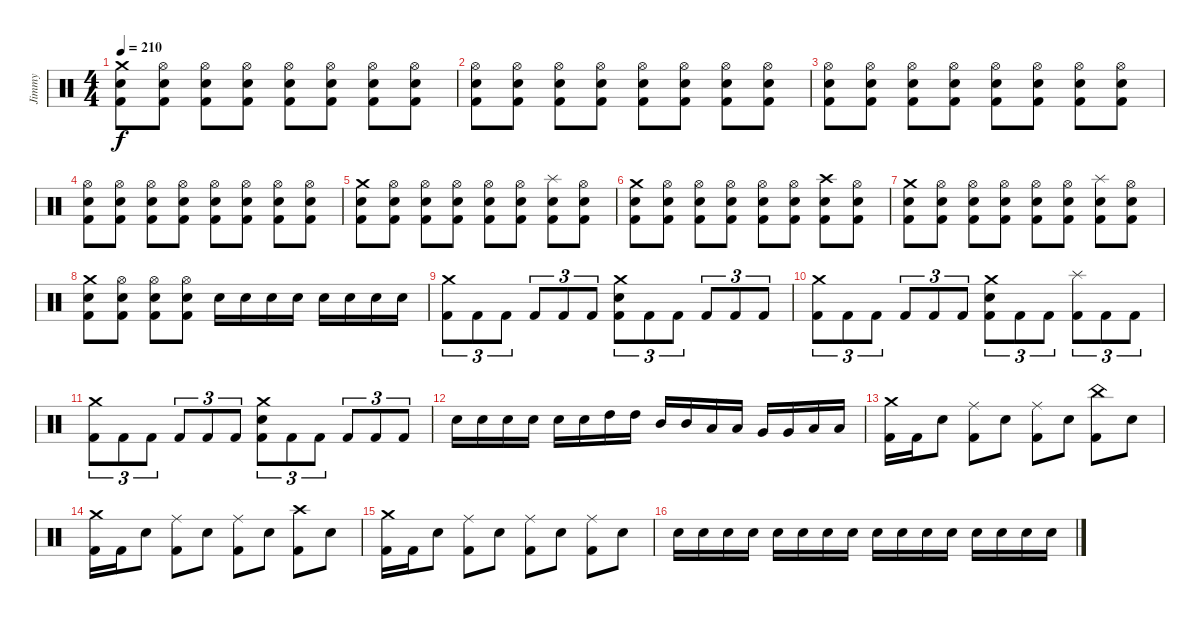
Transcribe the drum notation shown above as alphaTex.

\track ("Jimmy" "Jimmy") {instrument percussion}
\staff {score}
\articulation defaults
\ts (4 4)
\tempo 210
\clef neutral
\ks c
("Crash medium (hit)" "Electric Snare (hit)" "Kick (hit) 2").8{dy f} ("Hi-Hat (open)" "Electric Snare (hit)" "Kick (hit) 2").8 ("Hi-Hat (open)" "Electric Snare (hit)" "Kick (hit) 2").8 ("Hi-Hat (open)" "Electric Snare (hit)" "Kick (hit) 2").8 ("Hi-Hat (open)" "Electric Snare (hit)" "Kick (hit) 2").8 ("Hi-Hat (open)" "Electric Snare (hit)" "Kick (hit) 2").8 ("Hi-Hat (open)" "Electric Snare (hit)" "Kick (hit) 2").8 ("Hi-Hat (open)" "Electric Snare (hit)" "Kick (hit) 2").8 |
("Hi-Hat (open)" "Electric Snare (hit)" "Kick (hit) 2").8 ("Hi-Hat (open)" "Electric Snare (hit)" "Kick (hit) 2").8 ("Hi-Hat (open)" "Electric Snare (hit)" "Kick (hit) 2").8 ("Hi-Hat (open)" "Electric Snare (hit)" "Kick (hit) 2").8 ("Hi-Hat (open)" "Electric Snare (hit)" "Kick (hit) 2").8 ("Hi-Hat (open)" "Electric Snare (hit)" "Kick (hit) 2").8 ("Hi-Hat (open)" "Electric Snare (hit)" "Kick (hit) 2").8 ("Hi-Hat (open)" "Electric Snare (hit)" "Kick (hit) 2").8 |
("Hi-Hat (open)" "Electric Snare (hit)" "Kick (hit) 2").8 ("Hi-Hat (open)" "Electric Snare (hit)" "Kick (hit) 2").8 ("Hi-Hat (open)" "Electric Snare (hit)" "Kick (hit) 2").8 ("Hi-Hat (open)" "Electric Snare (hit)" "Kick (hit) 2").8 ("Hi-Hat (open)" "Electric Snare (hit)" "Kick (hit) 2").8 ("Hi-Hat (open)" "Electric Snare (hit)" "Kick (hit) 2").8 ("Hi-Hat (open)" "Electric Snare (hit)" "Kick (hit) 2").8 ("Hi-Hat (open)" "Electric Snare (hit)" "Kick (hit) 2").8 |
("Hi-Hat (open)" "Electric Snare (hit)" "Kick (hit) 2").8 ("Hi-Hat (open)" "Electric Snare (hit)" "Kick (hit) 2").8 ("Hi-Hat (open)" "Electric Snare (hit)" "Kick (hit) 2").8 ("Hi-Hat (open)" "Electric Snare (hit)" "Kick (hit) 2").8 ("Hi-Hat (open)" "Electric Snare (hit)" "Kick (hit) 2").8 ("Hi-Hat (open)" "Electric Snare (hit)" "Kick (hit) 2").8 ("Hi-Hat (open)" "Electric Snare (hit)" "Kick (hit) 2").8 ("Hi-Hat (open)" "Electric Snare (hit)" "Kick (hit) 2").8 |
("Crash medium (hit)" "Electric Snare (hit)" "Kick (hit) 2").8 ("Hi-Hat (open)" "Electric Snare (hit)" "Kick (hit) 2").8 ("Hi-Hat (open)" "Electric Snare (hit)" "Kick (hit) 2").8 ("Hi-Hat (open)" "Electric Snare (hit)" "Kick (hit) 2").8 ("Hi-Hat (open)" "Electric Snare (hit)" "Kick (hit) 2").8 ("Hi-Hat (open)" "Electric Snare (hit)" "Kick (hit) 2").8 ("Splash (hit)" "Electric Snare (hit)" "Kick (hit) 2").8 ("Hi-Hat (open)" "Electric Snare (hit)" "Kick (hit) 2").8 |
("Crash medium (hit)" "Electric Snare (hit)" "Kick (hit) 2").8 ("Hi-Hat (open)" "Electric Snare (hit)" "Kick (hit) 2").8 ("Hi-Hat (open)" "Electric Snare (hit)" "Kick (hit) 2").8 ("Hi-Hat (open)" "Electric Snare (hit)" "Kick (hit) 2").8 ("Hi-Hat (open)" "Electric Snare (hit)" "Kick (hit) 2").8 ("Hi-Hat (open)" "Electric Snare (hit)" "Kick (hit) 2").8 ("Crash high (hit)" "Electric Snare (hit)" "Kick (hit) 2").8 ("Hi-Hat (open)" "Electric Snare (hit)" "Kick (hit) 2").8 |
("Crash medium (hit)" "Electric Snare (hit)" "Kick (hit) 2").8 ("Hi-Hat (open)" "Electric Snare (hit)" "Kick (hit) 2").8 ("Hi-Hat (open)" "Electric Snare (hit)" "Kick (hit) 2").8 ("Hi-Hat (open)" "Electric Snare (hit)" "Kick (hit) 2").8 ("Hi-Hat (open)" "Electric Snare (hit)" "Kick (hit) 2").8 ("Hi-Hat (open)" "Electric Snare (hit)" "Kick (hit) 2").8 ("Splash (hit)" "Electric Snare (hit)" "Kick (hit) 2").8 ("Hi-Hat (open)" "Electric Snare (hit)" "Kick (hit) 2").8 |
("Crash medium (hit)" "Electric Snare (hit)" "Kick (hit) 2").8 ("Hi-Hat (open)" "Electric Snare (hit)" "Kick (hit) 2").8 ("Hi-Hat (open)" "Electric Snare (hit)" "Kick (hit) 2").8 ("Hi-Hat (open)" "Electric Snare (hit)" "Kick (hit) 2").8 "Electric Snare (hit)".16 "Electric Snare (hit)".16 "Electric Snare (hit)".16 "Electric Snare (hit)".16 "Electric Snare (hit)".16 "Electric Snare (hit)".16 "Electric Snare (hit)".16 "Electric Snare (hit)".16 |
("Crash medium (hit)" "Kick (hit) 2").8{tu (3 2)} "Kick (hit) 2".8{tu (3 2)} "Kick (hit) 2".8{tu (3 2)} "Kick (hit) 2".8{tu (3 2)} "Kick (hit) 2".8{tu (3 2)} "Kick (hit) 2".8{tu (3 2)} ("Crash medium (hit)" "Electric Snare (hit)" "Kick (hit) 2").8{tu (3 2)} "Kick (hit) 2".8{tu (3 2)} "Kick (hit) 2".8{tu (3 2)} "Kick (hit) 2".8{tu (3 2)} "Kick (hit) 2".8{tu (3 2)} "Kick (hit) 2".8{tu (3 2)} |
("Crash medium (hit)" "Kick (hit) 2").8{tu (3 2)} "Kick (hit) 2".8{tu (3 2)} "Kick (hit) 2".8{tu (3 2)} "Kick (hit) 2".8{tu (3 2)} "Kick (hit) 2".8{tu (3 2)} "Kick (hit) 2".8{tu (3 2)} ("Crash medium (hit)" "Electric Snare (hit)" "Kick (hit) 2").8{tu (3 2)} "Kick (hit) 2".8{tu (3 2)} "Kick (hit) 2".8{tu (3 2)} ("Splash (hit)" "Kick (hit) 2").8{tu (3 2)} "Kick (hit) 2".8{tu (3 2)} "Kick (hit) 2".8{tu (3 2)} |
("Crash medium (hit)" "Kick (hit) 2").8{tu (3 2)} "Kick (hit) 2".8{tu (3 2)} "Kick (hit) 2".8{tu (3 2)} "Kick (hit) 2".8{tu (3 2)} "Kick (hit) 2".8{tu (3 2)} "Kick (hit) 2".8{tu (3 2)} ("Crash medium (hit)" "Electric Snare (hit)" "Kick (hit) 2").8{tu (3 2)} "Kick (hit) 2".8{tu (3 2)} "Kick (hit) 2".8{tu (3 2)} "Kick (hit) 2".8{tu (3 2)} "Kick (hit) 2".8{tu (3 2)} "Kick (hit) 2".8{tu (3 2)} |
"Electric Snare (hit)".16 "Electric Snare (hit)".16 "Electric Snare (hit)".16 "Electric Snare (hit)".16 "Electric Snare (hit)".16 "Electric Snare (hit)".16 "High Tom (hit)".16 "High Tom (hit)".16 "Mid Tom (hit)".16 "Mid Tom (hit)".16 "Low Tom (hit)".16 "Low Tom (hit)".16 "Very Low Tom (hit)".16 "Very Low Tom (hit)".16 "Low Floor Tom (hit)".16 "Low Floor Tom (hit)".16 |
("Crash medium (hit)" "Kick (hit) 2").16 "Kick (hit) 2".16 "Electric Snare (hit)".8 ("Ride (middle)" "Kick (hit) 2").8 "Electric Snare (hit)".8 ("Ride (middle)" "Kick (hit) 2").8 "Electric Snare (hit)".8 ("China (hit)" "Kick (hit) 2").8 "Electric Snare (hit)".8 |
("Crash medium (hit)" "Kick (hit) 2").16 "Kick (hit) 2".16 "Electric Snare (hit)".8 ("Ride (middle)" "Kick (hit) 2").8 "Electric Snare (hit)".8 ("Ride (middle)" "Kick (hit) 2").8 "Electric Snare (hit)".8 ("Crash high (hit)" "Kick (hit) 2").8 "Electric Snare (hit)".8 |
("Crash medium (hit)" "Kick (hit) 2").16 "Kick (hit) 2".16 "Electric Snare (hit)".8 ("Ride (middle)" "Kick (hit) 2").8 "Electric Snare (hit)".8 ("Ride (middle)" "Kick (hit) 2").8 "Electric Snare (hit)".8 ("Ride (middle)" "Kick (hit) 2").8 "Electric Snare (hit)".8 |
"Electric Snare (hit)".16 "Electric Snare (hit)".16 "Electric Snare (hit)".16 "Electric Snare (hit)".16 "Electric Snare (hit)".16 "Electric Snare (hit)".16 "Electric Snare (hit)".16 "Electric Snare (hit)".16 "Electric Snare (hit)".16 "Electric Snare (hit)".16 "Electric Snare (hit)".16 "Electric Snare (hit)".16 "Electric Snare (hit)".16 "Electric Snare (hit)".16 "Electric Snare (hit)".16 "Electric Snare (hit)".16
